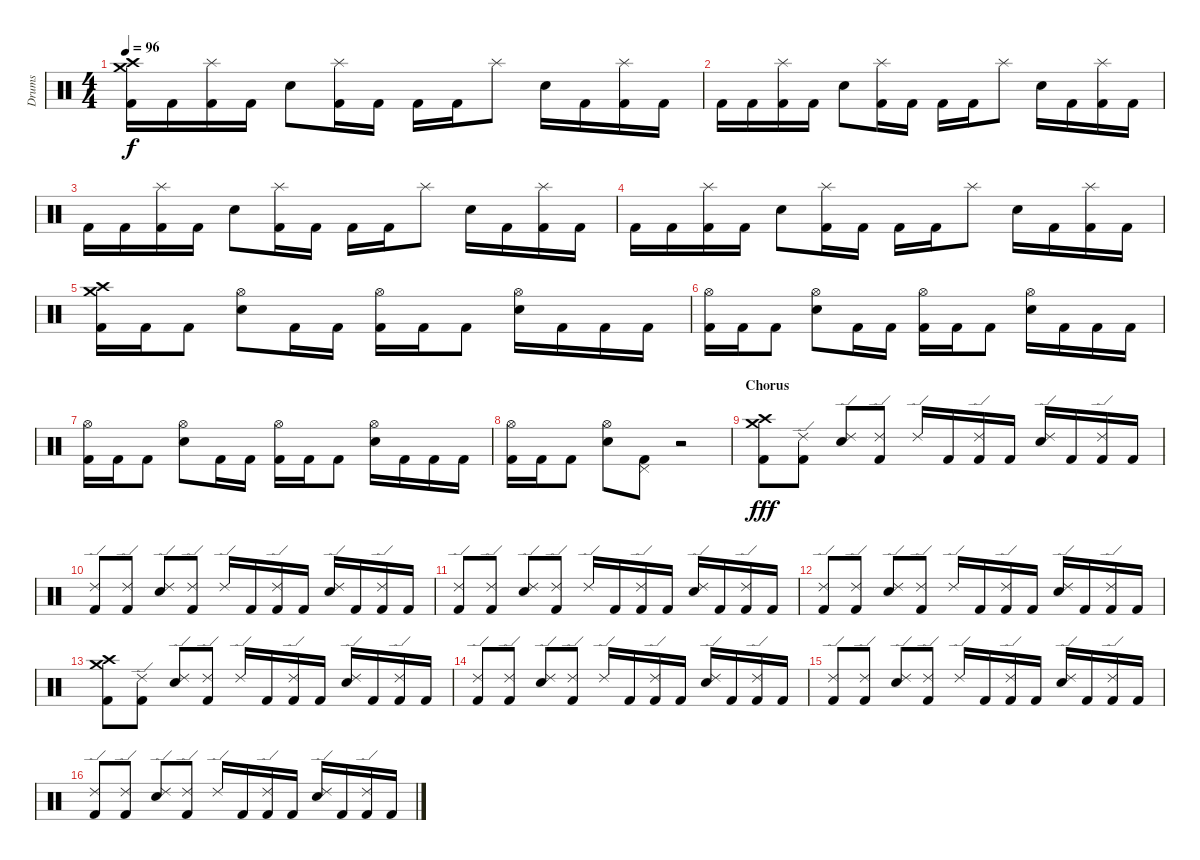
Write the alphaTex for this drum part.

\track ("Drums" "Drums") {instrument percussion}
\staff {score}
\articulation defaults
\ts (4 4)
\tempo 96
\clef neutral
\ks c
("Crash high (hit)" "Crash medium (hit)" "Kick (hit) 2").16{dy f} "Kick (hit) 2".16 ("Splash (hit)" "Kick (hit) 2").16 "Kick (hit) 2".16 "Electric Snare (hit)".8 ("Splash (hit)" "Kick (hit) 2").16 "Kick (hit) 2".16 "Kick (hit) 2".16 "Kick (hit) 2".16 "Splash (hit)".8 "Electric Snare (hit)".16 "Kick (hit) 2".16 ("Splash (hit)" "Kick (hit) 2").16 "Kick (hit) 2".16 |
"Kick (hit) 2".16 "Kick (hit) 2".16 ("Splash (hit)" "Kick (hit) 2").16 "Kick (hit) 2".16 "Electric Snare (hit)".8 ("Splash (hit)" "Kick (hit) 2").16 "Kick (hit) 2".16 "Kick (hit) 2".16 "Kick (hit) 2".16 "Splash (hit)".8 "Electric Snare (hit)".16 "Kick (hit) 2".16 ("Splash (hit)" "Kick (hit) 2").16 "Kick (hit) 2".16 |
"Kick (hit) 2".16 "Kick (hit) 2".16 ("Splash (hit)" "Kick (hit) 2").16 "Kick (hit) 2".16 "Electric Snare (hit)".8 ("Splash (hit)" "Kick (hit) 2").16 "Kick (hit) 2".16 "Kick (hit) 2".16 "Kick (hit) 2".16 "Splash (hit)".8 "Electric Snare (hit)".16 "Kick (hit) 2".16 ("Splash (hit)" "Kick (hit) 2").16 "Kick (hit) 2".16 |
"Kick (hit) 2".16 "Kick (hit) 2".16 ("Splash (hit)" "Kick (hit) 2").16 "Kick (hit) 2".16 "Electric Snare (hit)".8 ("Splash (hit)" "Kick (hit) 2").16 "Kick (hit) 2".16 "Kick (hit) 2".16 "Kick (hit) 2".16 "Splash (hit)".8 "Electric Snare (hit)".16 "Kick (hit) 2".16 ("Splash (hit)" "Kick (hit) 2").16 "Kick (hit) 2".16 |
("Crash high (hit)" "Crash medium (hit)" "Kick (hit) 2").16 "Kick (hit) 2".16 "Kick (hit) 2".8 ("Hi-Hat (open)" "Electric Snare (hit)").8 "Kick (hit) 2".16 "Kick (hit) 2".16 ("Hi-Hat (open)" "Kick (hit) 2").16 "Kick (hit) 2".16 "Kick (hit) 2".8 ("Hi-Hat (open)" "Electric Snare (hit)").16 "Kick (hit) 2".16 "Kick (hit) 2".16 "Kick (hit) 2".16 |
("Hi-Hat (open)" "Kick (hit) 2").16 "Kick (hit) 2".16 "Kick (hit) 2".8 ("Hi-Hat (open)" "Electric Snare (hit)").8 "Kick (hit) 2".16 "Kick (hit) 2".16 ("Hi-Hat (open)" "Kick (hit) 2").16 "Kick (hit) 2".16 "Kick (hit) 2".8 ("Hi-Hat (open)" "Electric Snare (hit)").16 "Kick (hit) 2".16 "Kick (hit) 2".16 "Kick (hit) 2".16 |
("Hi-Hat (open)" "Kick (hit) 2").16 "Kick (hit) 2".16 "Kick (hit) 2".8 ("Hi-Hat (open)" "Electric Snare (hit)").8 "Kick (hit) 2".16 "Kick (hit) 2".16 ("Hi-Hat (open)" "Kick (hit) 2").16 "Kick (hit) 2".16 "Kick (hit) 2".8 ("Hi-Hat (open)" "Electric Snare (hit)").16 "Kick (hit) 2".16 "Kick (hit) 2".16 "Kick (hit) 2".16 |
("Hi-Hat (open)" "Kick (hit) 2").16 "Kick (hit) 2".16 "Kick (hit) 2".8 ("Hi-Hat (open)" "Electric Snare (hit)").8 ("Pedal Hi-Hat (hit)" "Kick (hit) 2").8 r.2 |
\section ("" "Chorus")
("Crash high (hit)" "Crash medium (hit)" "Kick (hit) 2").8{dy fff} ("Ride (edge) 2" "Kick (hit) 2").8 ("Ride (edge) 2" "Electric Snare (hit)").8 ("Ride (edge) 2" "Kick (hit) 2").8 "Ride (edge) 2".16 "Kick (hit) 2".16 ("Ride (edge) 2" "Kick (hit) 2").16 "Kick (hit) 2".16 ("Ride (edge) 2" "Electric Snare (hit)").16 "Kick (hit) 2".16 ("Ride (edge) 2" "Kick (hit) 2").16 "Kick (hit) 2".16 |
("Ride (edge) 2" "Kick (hit) 2").8 ("Ride (edge) 2" "Kick (hit) 2").8 ("Ride (edge) 2" "Electric Snare (hit)").8 ("Ride (edge) 2" "Kick (hit) 2").8 "Ride (edge) 2".16 "Kick (hit) 2".16 ("Ride (edge) 2" "Kick (hit) 2").16 "Kick (hit) 2".16 ("Ride (edge) 2" "Electric Snare (hit)").16 "Kick (hit) 2".16 ("Ride (edge) 2" "Kick (hit) 2").16 "Kick (hit) 2".16 |
("Ride (edge) 2" "Kick (hit) 2").8 ("Ride (edge) 2" "Kick (hit) 2").8 ("Ride (edge) 2" "Electric Snare (hit)").8 ("Ride (edge) 2" "Kick (hit) 2").8 "Ride (edge) 2".16 "Kick (hit) 2".16 ("Ride (edge) 2" "Kick (hit) 2").16 "Kick (hit) 2".16 ("Ride (edge) 2" "Electric Snare (hit)").16 "Kick (hit) 2".16 ("Ride (edge) 2" "Kick (hit) 2").16 "Kick (hit) 2".16 |
("Ride (edge) 2" "Kick (hit) 2").8 ("Ride (edge) 2" "Kick (hit) 2").8 ("Ride (edge) 2" "Electric Snare (hit)").8 ("Ride (edge) 2" "Kick (hit) 2").8 "Ride (edge) 2".16 "Kick (hit) 2".16 ("Ride (edge) 2" "Kick (hit) 2").16 "Kick (hit) 2".16 ("Ride (edge) 2" "Electric Snare (hit)").16 "Kick (hit) 2".16 ("Ride (edge) 2" "Kick (hit) 2").16 "Kick (hit) 2".16 |
("Crash high (hit)" "Crash medium (hit)" "Kick (hit) 2").8 ("Ride (edge) 2" "Kick (hit) 2").8 ("Ride (edge) 2" "Electric Snare (hit)").8 ("Ride (edge) 2" "Kick (hit) 2").8 "Ride (edge) 2".16 "Kick (hit) 2".16 ("Ride (edge) 2" "Kick (hit) 2").16 "Kick (hit) 2".16 ("Ride (edge) 2" "Electric Snare (hit)").16 "Kick (hit) 2".16 ("Ride (edge) 2" "Kick (hit) 2").16 "Kick (hit) 2".16 |
("Ride (edge) 2" "Kick (hit) 2").8 ("Ride (edge) 2" "Kick (hit) 2").8 ("Ride (edge) 2" "Electric Snare (hit)").8 ("Ride (edge) 2" "Kick (hit) 2").8 "Ride (edge) 2".16 "Kick (hit) 2".16 ("Ride (edge) 2" "Kick (hit) 2").16 "Kick (hit) 2".16 ("Ride (edge) 2" "Electric Snare (hit)").16 "Kick (hit) 2".16 ("Ride (edge) 2" "Kick (hit) 2").16 "Kick (hit) 2".16 |
("Ride (edge) 2" "Kick (hit) 2").8 ("Ride (edge) 2" "Kick (hit) 2").8 ("Ride (edge) 2" "Electric Snare (hit)").8 ("Ride (edge) 2" "Kick (hit) 2").8 "Ride (edge) 2".16 "Kick (hit) 2".16 ("Ride (edge) 2" "Kick (hit) 2").16 "Kick (hit) 2".16 ("Ride (edge) 2" "Electric Snare (hit)").16 "Kick (hit) 2".16 ("Ride (edge) 2" "Kick (hit) 2").16 "Kick (hit) 2".16 |
("Ride (edge) 2" "Kick (hit) 2").8 ("Ride (edge) 2" "Kick (hit) 2").8 ("Ride (edge) 2" "Electric Snare (hit)").8 ("Ride (edge) 2" "Kick (hit) 2").8 "Ride (edge) 2".16 "Kick (hit) 2".16 ("Ride (edge) 2" "Kick (hit) 2").16 "Kick (hit) 2".16 ("Ride (edge) 2" "Electric Snare (hit)").16 "Kick (hit) 2".16 ("Ride (edge) 2" "Kick (hit) 2").16 "Kick (hit) 2".16
